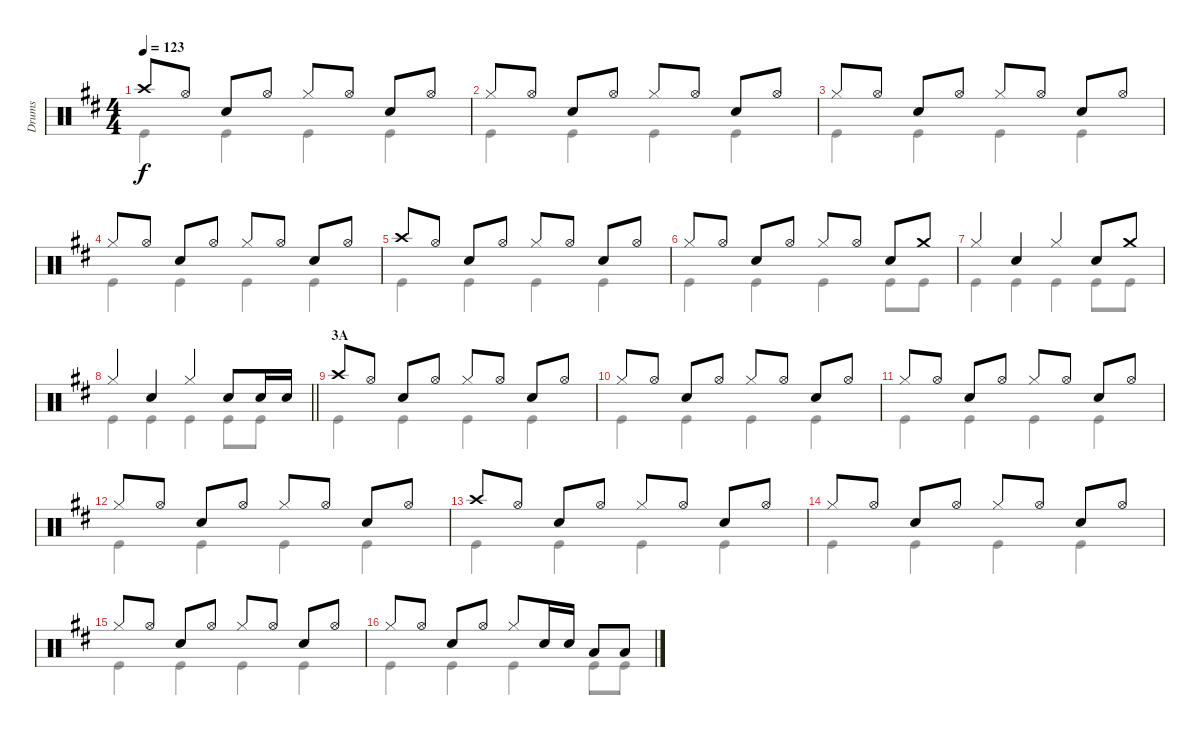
\track ("Drums" "Drums") {instrument percussion}
\staff {score}
\articulation defaults
\voice
\ts (4 4)
\tempo 123
\clef neutral
\ks d "Crash high (hit)".8{dy f} "Hi-Hat (open)".8 "Snare (hit) 2".8 "Hi-Hat (open)".8 "Hi-Hat (closed)".8 "Hi-Hat (open)".8 "Snare (hit) 2".8 "Hi-Hat (open)".8
|
"Hi-Hat (closed)".8 "Hi-Hat (open)".8 "Snare (hit) 2".8 "Hi-Hat (open)".8 "Hi-Hat (closed)".8 "Hi-Hat (open)".8 "Snare (hit) 2".8 "Hi-Hat (open)".8 |
"Hi-Hat (closed)".8 "Hi-Hat (open)".8 "Snare (hit) 2".8 "Hi-Hat (open)".8 "Hi-Hat (closed)".8 "Hi-Hat (open)".8 "Snare (hit) 2".8 "Hi-Hat (open)".8 |
"Hi-Hat (closed)".8 "Hi-Hat (open)".8 "Snare (hit) 2".8 "Hi-Hat (open)".8 "Hi-Hat (closed)".8 "Hi-Hat (open)".8 "Snare (hit) 2".8 "Hi-Hat (open)".8 |
"Crash high (hit)".8 "Hi-Hat (open)".8 "Snare (hit) 2".8 "Hi-Hat (open)".8 "Hi-Hat (closed)".8 "Hi-Hat (open)".8 "Snare (hit) 2".8 "Hi-Hat (open)".8 |
"Hi-Hat (closed)".8 "Hi-Hat (open)".8 "Snare (hit) 2".8 "Hi-Hat (open)".8 "Hi-Hat (closed)".8 "Hi-Hat (open)".8 "Snare (hit) 2".8 "Crash medium (hit)".8 |
"Hi-Hat (closed)".4 "Snare (hit) 2".4 "Hi-Hat (closed)".4 "Snare (hit) 2".8 "Crash medium (hit)".8 |
\barLineRight lightlight "Hi-Hat (closed)".4 "Snare (hit) 2".4 "Hi-Hat (closed)".4 "Snare (hit) 2".8 "Snare (hit) 2".16 "Snare (hit) 2".16
|
\section ("" "3A")
"Crash high (hit)".8 "Hi-Hat (open)".8 "Snare (hit) 2".8 "Hi-Hat (open)".8 "Hi-Hat (closed)".8 "Hi-Hat (open)".8 "Snare (hit) 2".8 "Hi-Hat (open)".8 |
"Hi-Hat (closed)".8 "Hi-Hat (open)".8 "Snare (hit) 2".8 "Hi-Hat (open)".8 "Hi-Hat (closed)".8 "Hi-Hat (open)".8 "Snare (hit) 2".8 "Hi-Hat (open)".8 |
"Hi-Hat (closed)".8 "Hi-Hat (open)".8 "Snare (hit) 2".8 "Hi-Hat (open)".8 "Hi-Hat (closed)".8 "Hi-Hat (open)".8 "Snare (hit) 2".8 "Hi-Hat (open)".8 |
"Hi-Hat (closed)".8 "Hi-Hat (open)".8 "Snare (hit) 2".8 "Hi-Hat (open)".8 "Hi-Hat (closed)".8 "Hi-Hat (open)".8 "Snare (hit) 2".8 "Hi-Hat (open)".8 |
"Crash high (hit)".8 "Hi-Hat (open)".8 "Snare (hit) 2".8 "Hi-Hat (open)".8 "Hi-Hat (closed)".8 "Hi-Hat (open)".8 "Snare (hit) 2".8 "Hi-Hat (open)".8 |
"Hi-Hat (closed)".8 "Hi-Hat (open)".8 "Snare (hit) 2".8 "Hi-Hat (open)".8 "Hi-Hat (closed)".8 "Hi-Hat (open)".8 "Snare (hit) 2".8 "Hi-Hat (open)".8 |
"Hi-Hat (closed)".8 "Hi-Hat (open)".8 "Snare (hit) 2".8 "Hi-Hat (open)".8 "Hi-Hat (closed)".8 "Hi-Hat (open)".8 "Snare (hit) 2".8 "Hi-Hat (open)".8 |
"Hi-Hat (closed)".8 "Hi-Hat (open)".8 "Snare (hit) 2".8 "Hi-Hat (open)".8 "Hi-Hat (closed)".8 "Snare (hit) 2".16 "Snare (hit) 2".16 "Low Tom (hit)".8 "Low Tom (hit)".8
\voice
\clef neutral
\ottava regular
\simile none
\ks d "Kick (hit)".4{dy f} "Kick (hit)".4 "Kick (hit)".4 "Kick (hit)".4
|
"Kick (hit)".4 "Kick (hit)".4 "Kick (hit)".4 "Kick (hit)".4 |
"Kick (hit)".4 "Kick (hit)".4 "Kick (hit)".4 "Kick (hit)".4 |
"Kick (hit)".4 "Kick (hit)".4 "Kick (hit)".4 "Kick (hit)".4 |
"Kick (hit)".4 "Kick (hit)".4 "Kick (hit)".4 "Kick (hit)".4 |
"Kick (hit)".4 "Kick (hit)".4 "Kick (hit)".4 "Kick (hit)".8 "Kick (hit)".8 |
"Kick (hit)".4 "Kick (hit)".4 "Kick (hit)".4 "Kick (hit)".8 "Kick (hit)".8 |
\barLineRight lightlight "Kick (hit)".4 "Kick (hit)".4 "Kick (hit)".4 "Kick (hit)".8 "Kick (hit)".8
|
"Kick (hit)".4 "Kick (hit)".4 "Kick (hit)".4 "Kick (hit)".4 |
"Kick (hit)".4 "Kick (hit)".4 "Kick (hit)".4 "Kick (hit)".4 |
"Kick (hit)".4 "Kick (hit)".4 "Kick (hit)".4 "Kick (hit)".4 |
"Kick (hit)".4 "Kick (hit)".4 "Kick (hit)".4 "Kick (hit)".4 |
"Kick (hit)".4 "Kick (hit)".4 "Kick (hit)".4 "Kick (hit)".4 |
"Kick (hit)".4 "Kick (hit)".4 "Kick (hit)".4 "Kick (hit)".4 |
"Kick (hit)".4 "Kick (hit)".4 "Kick (hit)".4 "Kick (hit)".4 |
"Kick (hit)".4 "Kick (hit)".4 "Kick (hit)".4 "Kick (hit)".8 "Kick (hit)".8
